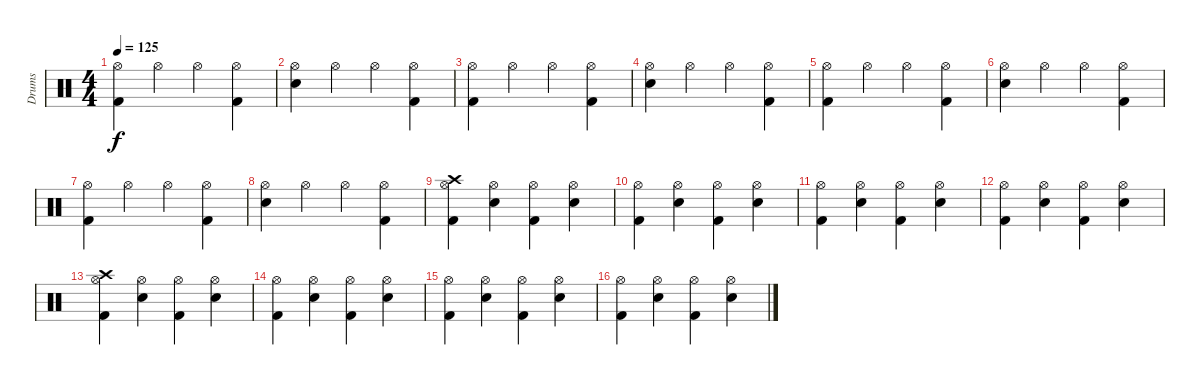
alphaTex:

\track ("Drums" "Drums") {instrument percussion}
\staff {score}
\articulation defaults
\ts (4 4)
\tempo 125
\clef neutral
\ks c
("Hi-Hat (open)" "Kick (hit) 2").4{dy f} "Hi-Hat (open)".4 "Hi-Hat (open)".4 ("Hi-Hat (open)" "Kick (hit) 2").4 |
("Hi-Hat (open)" "Snare (hit) 2").4 "Hi-Hat (open)".4 "Hi-Hat (open)".4 ("Hi-Hat (open)" "Kick (hit) 2").4 |
("Hi-Hat (open)" "Kick (hit) 2").4 "Hi-Hat (open)".4 "Hi-Hat (open)".4 ("Hi-Hat (open)" "Kick (hit) 2").4 |
("Hi-Hat (open)" "Snare (hit) 2").4 "Hi-Hat (open)".4 "Hi-Hat (open)".4 ("Hi-Hat (open)" "Kick (hit) 2").4 |
("Hi-Hat (open)" "Kick (hit) 2").4 "Hi-Hat (open)".4 "Hi-Hat (open)".4 ("Hi-Hat (open)" "Kick (hit) 2").4 |
("Hi-Hat (open)" "Snare (hit) 2").4 "Hi-Hat (open)".4 "Hi-Hat (open)".4 ("Hi-Hat (open)" "Kick (hit) 2").4 |
("Hi-Hat (open)" "Kick (hit) 2").4 "Hi-Hat (open)".4 "Hi-Hat (open)".4 ("Hi-Hat (open)" "Kick (hit) 2").4 |
("Hi-Hat (open)" "Snare (hit) 2").4 "Hi-Hat (open)".4 "Hi-Hat (open)".4 ("Hi-Hat (open)" "Kick (hit) 2").4 |
("Hi-Hat (open)" "Crash high (hit)" "Kick (hit) 2").4 ("Hi-Hat (open)" "Snare (hit) 2").4 ("Hi-Hat (open)" "Kick (hit) 2").4 ("Hi-Hat (open)" "Snare (hit) 2").4 |
("Hi-Hat (open)" "Kick (hit) 2").4 ("Hi-Hat (open)" "Snare (hit) 2").4 ("Hi-Hat (open)" "Kick (hit) 2").4 ("Hi-Hat (open)" "Snare (hit) 2").4 |
("Hi-Hat (open)" "Kick (hit) 2").4 ("Hi-Hat (open)" "Snare (hit) 2").4 ("Hi-Hat (open)" "Kick (hit) 2").4 ("Hi-Hat (open)" "Snare (hit) 2").4 |
("Hi-Hat (open)" "Kick (hit) 2").4 ("Hi-Hat (open)" "Snare (hit) 2").4 ("Hi-Hat (open)" "Kick (hit) 2").4 ("Hi-Hat (open)" "Snare (hit) 2").4 |
("Hi-Hat (open)" "Crash high (hit)" "Kick (hit) 2").4 ("Hi-Hat (open)" "Snare (hit) 2").4 ("Hi-Hat (open)" "Kick (hit) 2").4 ("Hi-Hat (open)" "Snare (hit) 2").4 |
("Hi-Hat (open)" "Kick (hit) 2").4 ("Hi-Hat (open)" "Snare (hit) 2").4 ("Hi-Hat (open)" "Kick (hit) 2").4 ("Hi-Hat (open)" "Snare (hit) 2").4 |
("Hi-Hat (open)" "Kick (hit) 2").4 ("Hi-Hat (open)" "Snare (hit) 2").4 ("Hi-Hat (open)" "Kick (hit) 2").4 ("Hi-Hat (open)" "Snare (hit) 2").4 |
("Hi-Hat (open)" "Kick (hit) 2").4 ("Hi-Hat (open)" "Snare (hit) 2").4 ("Hi-Hat (open)" "Kick (hit) 2").4 ("Hi-Hat (open)" "Snare (hit) 2").4
